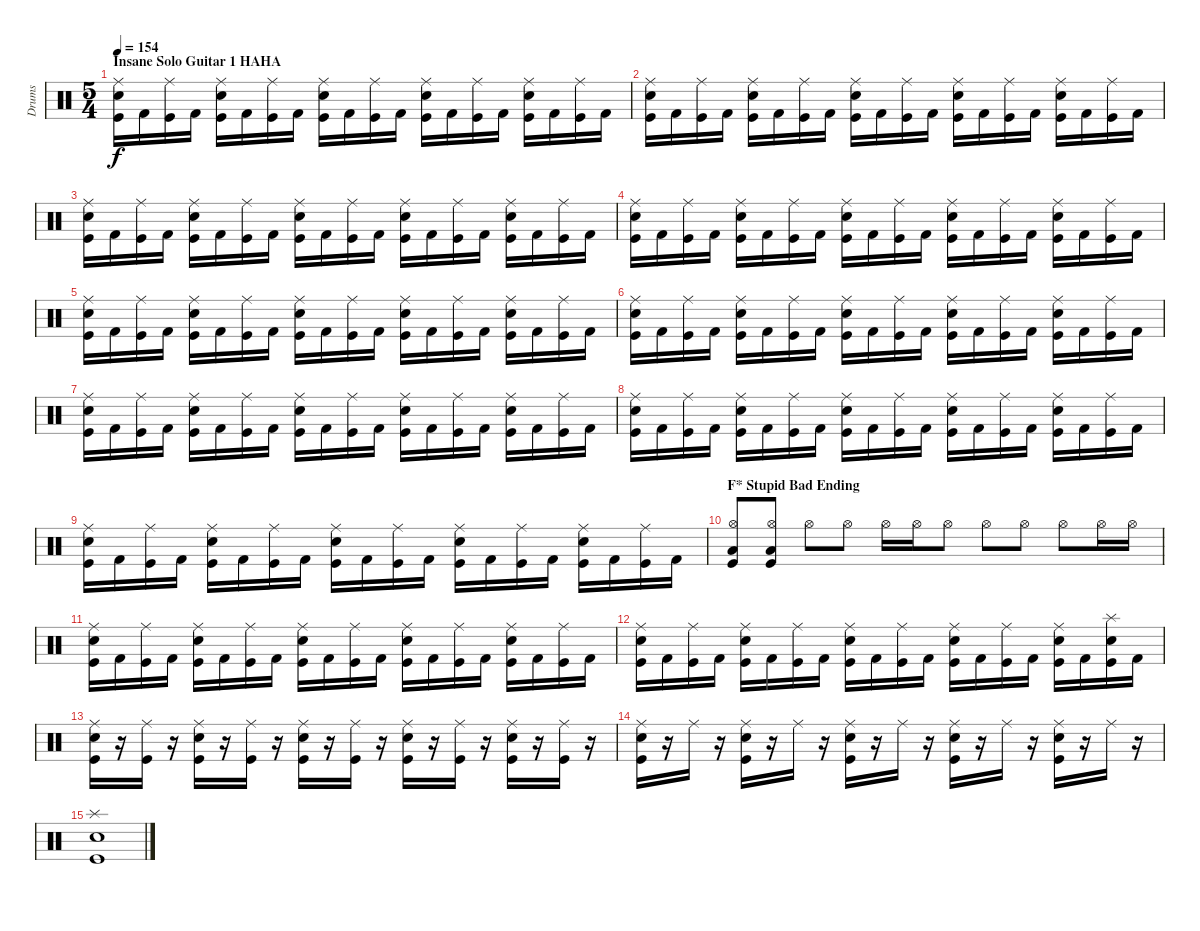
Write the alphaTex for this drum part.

\track ("Drums" "Drums") {instrument percussion}
\staff {score}
\articulation defaults
\ts (5 4)
\section ("" "Insane Solo Guitar 1 HAHA")
\tempo 154
\clef neutral
\ks c
("Ride (middle)" "Electric Snare (hit)" "Kick (hit)").16{dy f} "Kick (hit) 2".16 ("Ride (middle)" "Kick (hit)").16 "Kick (hit) 2".16 ("Ride (middle)" "Electric Snare (hit)" "Kick (hit)").16 "Kick (hit) 2".16 ("Ride (middle)" "Kick (hit)").16 "Kick (hit) 2".16 ("Ride (middle)" "Electric Snare (hit)" "Kick (hit)").16 "Kick (hit) 2".16 ("Ride (middle)" "Kick (hit)").16 "Kick (hit) 2".16 ("Ride (middle)" "Electric Snare (hit)" "Kick (hit)").16 "Kick (hit) 2".16 ("Ride (middle)" "Kick (hit)").16 "Kick (hit) 2".16 ("Ride (middle)" "Electric Snare (hit)" "Kick (hit)").16 "Kick (hit) 2".16 ("Ride (middle)" "Kick (hit)").16 "Kick (hit) 2".16 |
("Ride (middle)" "Electric Snare (hit)" "Kick (hit)").16 "Kick (hit) 2".16 ("Ride (middle)" "Kick (hit)").16 "Kick (hit) 2".16 ("Ride (middle)" "Electric Snare (hit)" "Kick (hit)").16 "Kick (hit) 2".16 ("Ride (middle)" "Kick (hit)").16 "Kick (hit) 2".16 ("Ride (middle)" "Electric Snare (hit)" "Kick (hit)").16 "Kick (hit) 2".16 ("Ride (middle)" "Kick (hit)").16 "Kick (hit) 2".16 ("Ride (middle)" "Electric Snare (hit)" "Kick (hit)").16 "Kick (hit) 2".16 ("Ride (middle)" "Kick (hit)").16 "Kick (hit) 2".16 ("Ride (middle)" "Electric Snare (hit)" "Kick (hit)").16 "Kick (hit) 2".16 ("Ride (middle)" "Kick (hit)").16 "Kick (hit) 2".16 |
("Ride (middle)" "Electric Snare (hit)" "Kick (hit)").16 "Kick (hit) 2".16 ("Ride (middle)" "Kick (hit)").16 "Kick (hit) 2".16 ("Ride (middle)" "Electric Snare (hit)" "Kick (hit)").16 "Kick (hit) 2".16 ("Ride (middle)" "Kick (hit)").16 "Kick (hit) 2".16 ("Ride (middle)" "Electric Snare (hit)" "Kick (hit)").16 "Kick (hit) 2".16 ("Ride (middle)" "Kick (hit)").16 "Kick (hit) 2".16 ("Ride (middle)" "Electric Snare (hit)" "Kick (hit)").16 "Kick (hit) 2".16 ("Ride (middle)" "Kick (hit)").16 "Kick (hit) 2".16 ("Ride (middle)" "Electric Snare (hit)" "Kick (hit)").16 "Kick (hit) 2".16 ("Ride (middle)" "Kick (hit)").16 "Kick (hit) 2".16 |
("Ride (middle)" "Electric Snare (hit)" "Kick (hit)").16 "Kick (hit) 2".16 ("Ride (middle)" "Kick (hit)").16 "Kick (hit) 2".16 ("Ride (middle)" "Electric Snare (hit)" "Kick (hit)").16 "Kick (hit) 2".16 ("Ride (middle)" "Kick (hit)").16 "Kick (hit) 2".16 ("Ride (middle)" "Electric Snare (hit)" "Kick (hit)").16 "Kick (hit) 2".16 ("Ride (middle)" "Kick (hit)").16 "Kick (hit) 2".16 ("Ride (middle)" "Electric Snare (hit)" "Kick (hit)").16 "Kick (hit) 2".16 ("Ride (middle)" "Kick (hit)").16 "Kick (hit) 2".16 ("Ride (middle)" "Electric Snare (hit)" "Kick (hit)").16 "Kick (hit) 2".16 ("Ride (middle)" "Kick (hit)").16 "Kick (hit) 2".16 |
("Ride (middle)" "Electric Snare (hit)" "Kick (hit)").16 "Kick (hit) 2".16 ("Ride (middle)" "Kick (hit)").16 "Kick (hit) 2".16 ("Ride (middle)" "Electric Snare (hit)" "Kick (hit)").16 "Kick (hit) 2".16 ("Ride (middle)" "Kick (hit)").16 "Kick (hit) 2".16 ("Ride (middle)" "Electric Snare (hit)" "Kick (hit)").16 "Kick (hit) 2".16 ("Ride (middle)" "Kick (hit)").16 "Kick (hit) 2".16 ("Ride (middle)" "Electric Snare (hit)" "Kick (hit)").16 "Kick (hit) 2".16 ("Ride (middle)" "Kick (hit)").16 "Kick (hit) 2".16 ("Ride (middle)" "Electric Snare (hit)" "Kick (hit)").16 "Kick (hit) 2".16 ("Ride (middle)" "Kick (hit)").16 "Kick (hit) 2".16 |
("Ride (middle)" "Electric Snare (hit)" "Kick (hit)").16 "Kick (hit) 2".16 ("Ride (middle)" "Kick (hit)").16 "Kick (hit) 2".16 ("Ride (middle)" "Electric Snare (hit)" "Kick (hit)").16 "Kick (hit) 2".16 ("Ride (middle)" "Kick (hit)").16 "Kick (hit) 2".16 ("Ride (middle)" "Electric Snare (hit)" "Kick (hit)").16 "Kick (hit) 2".16 ("Ride (middle)" "Kick (hit)").16 "Kick (hit) 2".16 ("Ride (middle)" "Electric Snare (hit)" "Kick (hit)").16 "Kick (hit) 2".16 ("Ride (middle)" "Kick (hit)").16 "Kick (hit) 2".16 ("Ride (middle)" "Electric Snare (hit)" "Kick (hit)").16 "Kick (hit) 2".16 ("Ride (middle)" "Kick (hit)").16 "Kick (hit) 2".16 |
("Ride (middle)" "Electric Snare (hit)" "Kick (hit)").16 "Kick (hit) 2".16 ("Ride (middle)" "Kick (hit)").16 "Kick (hit) 2".16 ("Ride (middle)" "Electric Snare (hit)" "Kick (hit)").16 "Kick (hit) 2".16 ("Ride (middle)" "Kick (hit)").16 "Kick (hit) 2".16 ("Ride (middle)" "Electric Snare (hit)" "Kick (hit)").16 "Kick (hit) 2".16 ("Ride (middle)" "Kick (hit)").16 "Kick (hit) 2".16 ("Ride (middle)" "Electric Snare (hit)" "Kick (hit)").16 "Kick (hit) 2".16 ("Ride (middle)" "Kick (hit)").16 "Kick (hit) 2".16 ("Ride (middle)" "Electric Snare (hit)" "Kick (hit)").16 "Kick (hit) 2".16 ("Ride (middle)" "Kick (hit)").16 "Kick (hit) 2".16 |
("Ride (middle)" "Electric Snare (hit)" "Kick (hit)").16 "Kick (hit) 2".16 ("Ride (middle)" "Kick (hit)").16 "Kick (hit) 2".16 ("Ride (middle)" "Electric Snare (hit)" "Kick (hit)").16 "Kick (hit) 2".16 ("Ride (middle)" "Kick (hit)").16 "Kick (hit) 2".16 ("Ride (middle)" "Electric Snare (hit)" "Kick (hit)").16 "Kick (hit) 2".16 ("Ride (middle)" "Kick (hit)").16 "Kick (hit) 2".16 ("Ride (middle)" "Electric Snare (hit)" "Kick (hit)").16 "Kick (hit) 2".16 ("Ride (middle)" "Kick (hit)").16 "Kick (hit) 2".16 ("Ride (middle)" "Electric Snare (hit)" "Kick (hit)").16 "Kick (hit) 2".16 ("Ride (middle)" "Kick (hit)").16 "Kick (hit) 2".16 |
("Ride (middle)" "Electric Snare (hit)" "Kick (hit)").16 "Kick (hit) 2".16 ("Ride (middle)" "Kick (hit)").16 "Kick (hit) 2".16 ("Ride (middle)" "Electric Snare (hit)" "Kick (hit)").16 "Kick (hit) 2".16 ("Ride (middle)" "Kick (hit)").16 "Kick (hit) 2".16 ("Ride (middle)" "Electric Snare (hit)" "Kick (hit)").16 "Kick (hit) 2".16 ("Ride (middle)" "Kick (hit)").16 "Kick (hit) 2".16 ("Ride (middle)" "Electric Snare (hit)" "Kick (hit)").16 "Kick (hit) 2".16 ("Ride (middle)" "Kick (hit)").16 "Kick (hit) 2".16 ("Ride (middle)" "Electric Snare (hit)" "Kick (hit)").16 "Kick (hit) 2".16 ("Ride (middle)" "Kick (hit)").16 "Kick (hit) 2".16 |
\section ("" "F* Stupid Bad Ending")
("Hi-Hat (open)" "Low Floor Tom (hit)" "Kick (hit)").8 ("Hi-Hat (open)" "Low Floor Tom (hit)" "Kick (hit)").8 "Hi-Hat (open)".8 "Hi-Hat (open)".8 "Hi-Hat (open)".16 "Hi-Hat (open)".16 "Hi-Hat (open)".8 "Hi-Hat (open)".8 "Hi-Hat (open)".8 "Hi-Hat (open)".8 "Hi-Hat (open)".16 "Hi-Hat (open)".16 |
("Ride (middle)" "Electric Snare (hit)" "Kick (hit)").16 "Kick (hit) 2".16 ("Ride (middle)" "Kick (hit)").16 "Kick (hit) 2".16 ("Ride (middle)" "Electric Snare (hit)" "Kick (hit)").16 "Kick (hit) 2".16 ("Ride (middle)" "Kick (hit)").16 "Kick (hit) 2".16 ("Ride (middle)" "Electric Snare (hit)" "Kick (hit)").16 "Kick (hit) 2".16 ("Ride (middle)" "Kick (hit)").16 "Kick (hit) 2".16 ("Ride (middle)" "Electric Snare (hit)" "Kick (hit)").16 "Kick (hit) 2".16 ("Ride (middle)" "Kick (hit)").16 "Kick (hit) 2".16 ("Ride (middle)" "Electric Snare (hit)" "Kick (hit)").16 "Kick (hit) 2".16 ("Ride (middle)" "Kick (hit)").16 "Kick (hit) 2".16 |
("Ride (middle)" "Electric Snare (hit)" "Kick (hit)").16 "Kick (hit) 2".16 ("Ride (middle)" "Kick (hit)").16 "Kick (hit) 2".16 ("Ride (middle)" "Electric Snare (hit)" "Kick (hit)").16 "Kick (hit) 2".16 ("Ride (middle)" "Kick (hit)").16 "Kick (hit) 2".16 ("Ride (middle)" "Electric Snare (hit)" "Kick (hit)").16 "Kick (hit) 2".16 ("Ride (middle)" "Kick (hit)").16 "Kick (hit) 2".16 ("Ride (middle)" "Electric Snare (hit)" "Kick (hit)").16 "Kick (hit) 2".16 ("Ride (middle)" "Kick (hit)").16 "Kick (hit) 2".16 ("Ride (middle)" "Electric Snare (hit)" "Kick (hit)").16 "Kick (hit) 2".16 ("Splash (hit)" "Electric Snare (hit)" "Kick (hit)").16 "Kick (hit) 2".16 |
("Ride (middle)" "Electric Snare (hit)" "Kick (hit)").16 r.16 ("Ride (middle)" "Kick (hit)").16 r.16 ("Ride (middle)" "Electric Snare (hit)" "Kick (hit)").16 r.16 ("Ride (middle)" "Kick (hit)").16 r.16 ("Ride (middle)" "Electric Snare (hit)" "Kick (hit)").16 r.16 ("Ride (middle)" "Kick (hit)").16 r.16 ("Ride (middle)" "Electric Snare (hit)" "Kick (hit)").16 r.16 ("Ride (middle)" "Kick (hit)").16 r.16 ("Ride (middle)" "Electric Snare (hit)" "Kick (hit)").16 r.16 ("Ride (middle)" "Kick (hit)").16 r.16 |
("Ride (middle)" "Electric Snare (hit)" "Kick (hit)").16 r.16 "Ride (middle)".16 r.16 ("Ride (middle)" "Electric Snare (hit)" "Kick (hit)").16 r.16 "Ride (middle)".16 r.16 ("Ride (middle)" "Electric Snare (hit)" "Kick (hit)").16 r.16 "Ride (middle)".16 r.16 ("Ride (middle)" "Electric Snare (hit)" "Kick (hit)").16 r.16 "Ride (middle)".16 r.16 ("Ride (middle)" "Electric Snare (hit)" "Kick (hit)").16 r.16 "Ride (middle)".16 r.16 |
("Splash (hit)" "Electric Snare (hit)" "Kick (hit)").1
